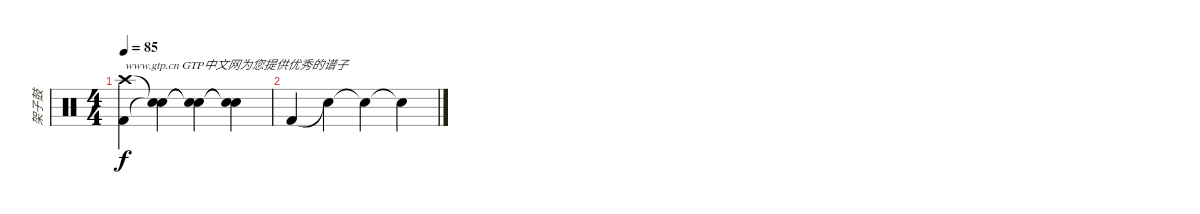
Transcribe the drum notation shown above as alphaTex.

\track ("架子鼓" "架子鼓") {instrument percussion}
\staff {score}
\articulation defaults
\ts (4 4)
\tempo 85
\clef neutral
\ks c
("Crash high (hit)" "Kick (hit) 2").4{txt "www.gtp.cn GTP中文网为您提供优秀的谱子" dy f} ("Snare (hit)"{t} "Snare (hit)"{t}).4 ("Snare (hit)"{t} "Snare (hit)"{t}).4 ("Snare (hit)"{t} "Snare (hit)"{t}).4 |
"Kick (hit) 2".4 "Snare (hit)"{t}.4 "Snare (hit)"{t}.4 "Snare (hit)"{t}.4
